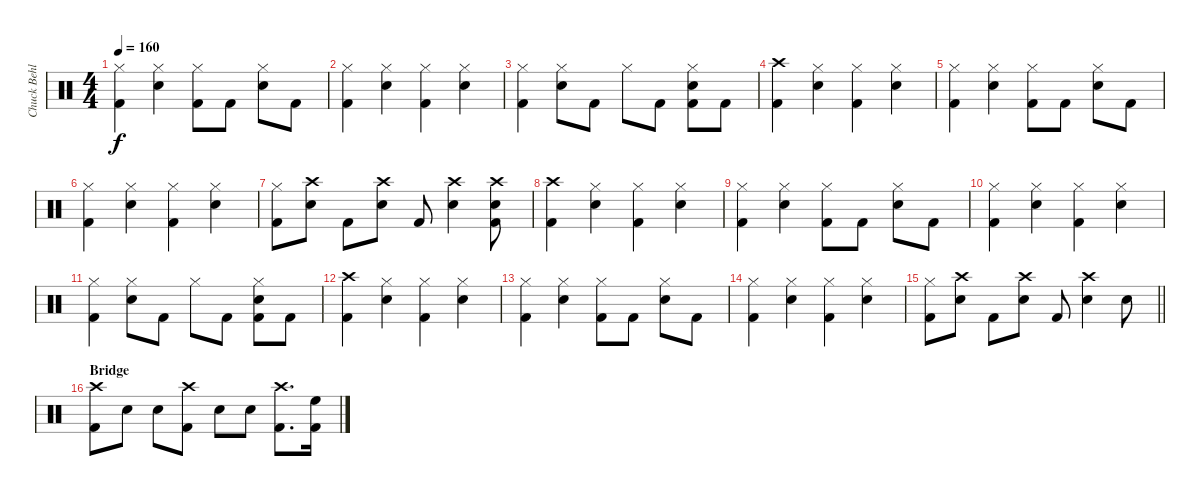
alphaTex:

\track ("Chuck Behler" "Chuck Behl") {instrument percussion}
\staff {score}
\articulation defaults
\ts (4 4)
\tempo 160
\clef neutral
\ks c
("Hi-Hat (closed)" "Kick (hit) 2").4{dy f} ("Hi-Hat (closed)" "Snare (hit) 2").4 ("Hi-Hat (closed)" "Kick (hit) 2").8 "Kick (hit) 2".8 ("Hi-Hat (closed)" "Snare (hit) 2").8 "Kick (hit) 2".8 |
("Hi-Hat (closed)" "Kick (hit) 2").4 ("Hi-Hat (closed)" "Snare (hit) 2").4 ("Hi-Hat (closed)" "Kick (hit) 2").4 ("Hi-Hat (closed)" "Snare (hit) 2").4 |
("Hi-Hat (closed)" "Kick (hit) 2").4 ("Hi-Hat (closed)" "Snare (hit) 2").8 "Kick (hit) 2".8 "Hi-Hat (closed)".8 "Kick (hit) 2".8 ("Hi-Hat (closed)" "Snare (hit) 2" "Kick (hit) 2").8 "Kick (hit) 2".8 |
("Crash high (hit)" "Kick (hit) 2").4 ("Hi-Hat (closed)" "Snare (hit) 2").4 ("Hi-Hat (closed)" "Kick (hit) 2").4 ("Hi-Hat (closed)" "Snare (hit) 2").4 |
("Hi-Hat (closed)" "Kick (hit) 2").4 ("Hi-Hat (closed)" "Snare (hit) 2").4 ("Hi-Hat (closed)" "Kick (hit) 2").8 "Kick (hit) 2".8 ("Hi-Hat (closed)" "Snare (hit) 2").8 "Kick (hit) 2".8 |
("Hi-Hat (closed)" "Kick (hit) 2").4 ("Hi-Hat (closed)" "Snare (hit) 2").4 ("Hi-Hat (closed)" "Kick (hit) 2").4 ("Hi-Hat (closed)" "Snare (hit) 2").4 |
("Hi-Hat (closed)" "Kick (hit) 2").8 ("Crash high (hit)" "Snare (hit) 2").8 "Kick (hit) 2".8 ("Crash high (hit)" "Snare (hit) 2").8 "Kick (hit) 2".8 ("Crash high (hit)" "Snare (hit) 2").4 ("Crash high (hit)" "Snare (hit) 2" "Kick (hit) 2").8 |
("Crash high (hit)" "Kick (hit) 2").4 ("Hi-Hat (closed)" "Snare (hit) 2").4 ("Hi-Hat (closed)" "Kick (hit) 2").4 ("Hi-Hat (closed)" "Snare (hit) 2").4 |
("Hi-Hat (closed)" "Kick (hit) 2").4 ("Hi-Hat (closed)" "Snare (hit) 2").4 ("Hi-Hat (closed)" "Kick (hit) 2").8 "Kick (hit) 2".8 ("Hi-Hat (closed)" "Snare (hit) 2").8 "Kick (hit) 2".8 |
("Hi-Hat (closed)" "Kick (hit) 2").4 ("Hi-Hat (closed)" "Snare (hit) 2").4 ("Hi-Hat (closed)" "Kick (hit) 2").4 ("Hi-Hat (closed)" "Snare (hit) 2").4 |
("Hi-Hat (closed)" "Kick (hit) 2").4 ("Hi-Hat (closed)" "Snare (hit) 2").8 "Kick (hit) 2".8 "Hi-Hat (closed)".8 "Kick (hit) 2".8 ("Hi-Hat (closed)" "Snare (hit) 2" "Kick (hit) 2").8 "Kick (hit) 2".8 |
("Crash high (hit)" "Kick (hit) 2").4 ("Hi-Hat (closed)" "Snare (hit) 2").4 ("Hi-Hat (closed)" "Kick (hit) 2").4 ("Hi-Hat (closed)" "Snare (hit) 2").4 |
("Hi-Hat (closed)" "Kick (hit) 2").4 ("Hi-Hat (closed)" "Snare (hit) 2").4 ("Hi-Hat (closed)" "Kick (hit) 2").8 "Kick (hit) 2".8 ("Hi-Hat (closed)" "Snare (hit) 2").8 "Kick (hit) 2".8 |
("Hi-Hat (closed)" "Kick (hit) 2").4 ("Hi-Hat (closed)" "Snare (hit) 2").4 ("Hi-Hat (closed)" "Kick (hit) 2").4 ("Hi-Hat (closed)" "Snare (hit) 2").4 |
\barLineRight lightlight
("Hi-Hat (closed)" "Kick (hit) 2").8 ("Crash high (hit)" "Snare (hit) 2").8 "Kick (hit) 2".8 ("Crash high (hit)" "Snare (hit) 2").8 "Kick (hit) 2".8 ("Crash high (hit)" "Snare (hit) 2").4 "Snare (hit) 2".8 |
\section ("" "Bridge")
("Crash high (hit)" "Kick (hit) 2").8 "Snare (hit) 2".8 "Snare (hit) 2".8 ("Crash high (hit)" "Kick (hit) 2").8 "Snare (hit) 2".8 "Snare (hit) 2".8 ("Crash high (hit)" "Kick (hit) 2").8{d} ("High Floor Tom (hit)" "Kick (hit) 2").16
